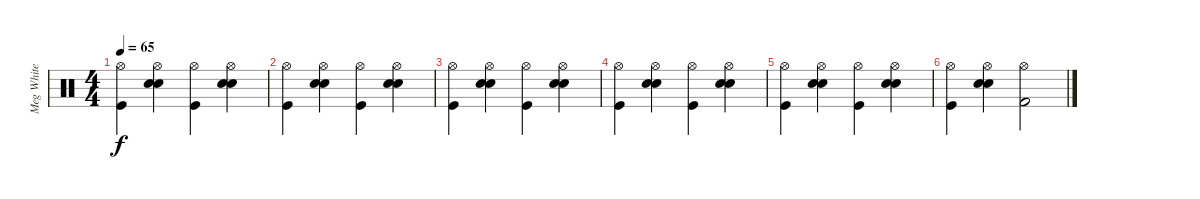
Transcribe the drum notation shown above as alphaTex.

\track ("Meg White" "Meg White") {instrument percussion}
\staff {score}
\articulation defaults
\ts (4 4)
\tempo 65
\clef neutral
\ks c
("Kick (hit)" "Hi-Hat (open)").4{dy f} ("Electric Snare (hit)" "Electric Snare (hit)" "Hi-Hat (open)").4 ("Kick (hit)" "Hi-Hat (open)").4 ("Electric Snare (hit)" "Electric Snare (hit)" "Hi-Hat (open)").4 |
("Kick (hit)" "Hi-Hat (open)").4 ("Electric Snare (hit)" "Electric Snare (hit)" "Hi-Hat (open)").4 ("Kick (hit)" "Hi-Hat (open)").4 ("Electric Snare (hit)" "Electric Snare (hit)" "Hi-Hat (open)").4 |
("Kick (hit)" "Hi-Hat (open)").4 ("Electric Snare (hit)" "Electric Snare (hit)" "Hi-Hat (open)").4 ("Kick (hit)" "Hi-Hat (open)").4 ("Electric Snare (hit)" "Electric Snare (hit)" "Hi-Hat (open)").4 |
("Kick (hit)" "Hi-Hat (open)").4 ("Electric Snare (hit)" "Electric Snare (hit)" "Hi-Hat (open)").4 ("Kick (hit)" "Hi-Hat (open)").4 ("Electric Snare (hit)" "Electric Snare (hit)" "Hi-Hat (open)").4 |
("Kick (hit)" "Hi-Hat (open)").4 ("Electric Snare (hit)" "Electric Snare (hit)" "Hi-Hat (open)").4 ("Kick (hit)" "Hi-Hat (open)").4 ("Electric Snare (hit)" "Electric Snare (hit)" "Hi-Hat (open)").4 |
("Kick (hit)" "Hi-Hat (open)").4 ("Electric Snare (hit)" "Electric Snare (hit)" "Hi-Hat (open)").4 ("Kick (hit) 2" "Hi-Hat (open)").2
